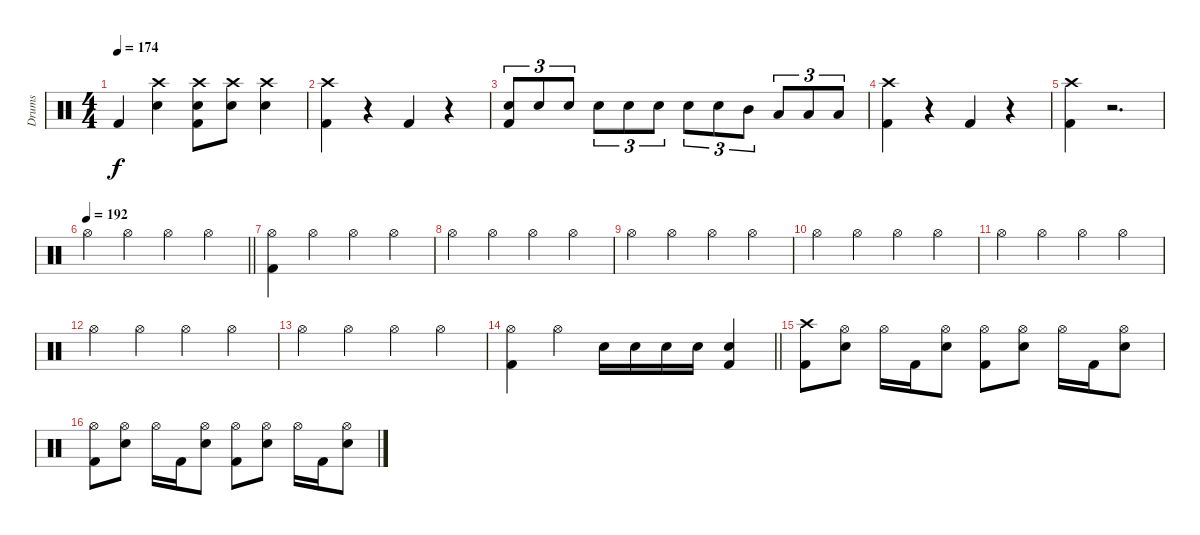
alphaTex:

\track ("Drums" "Drums") {instrument percussion}
\staff {score}
\articulation defaults
\ts (4 4)
\tempo 174
\clef neutral
\ks c "Kick (hit) 2".4{dy f}
("Crash high (hit)" "Snare (hit) 2").4 ("Crash high (hit)" "Snare (hit) 2" "Kick (hit) 2").8 ("Crash high (hit)" "Snare (hit) 2").8 ("Crash high (hit)" "Snare (hit) 2").4 |
("Crash high (hit)" "Kick (hit) 2").4 r.4 "Kick (hit) 2".4 r.4 |
("Snare (hit) 2" "Kick (hit) 2").8{tu (3 2)} "Snare (hit) 2".8{tu (3 2)} "Snare (hit) 2".8{tu (3 2)} "Snare (hit) 2".8{tu (3 2)} "Snare (hit) 2".8{tu (3 2)} "Snare (hit) 2".8{tu (3 2)} "Snare (hit) 2".8{tu (3 2)} "Snare (hit) 2".8{tu (3 2)} "Mid Tom (hit)".8{tu (3 2)} "Low Floor Tom (hit)".8{tu (3 2)} "Low Floor Tom (hit)".8{tu (3 2)} "Low Floor Tom (hit)".8{tu (3 2)} |
("Crash high (hit)" "Kick (hit) 2").4 r.4 "Kick (hit) 2".4 r.4 |
("Crash high (hit)" "Kick (hit) 2").4 r.2{d} |
\tempo 192
\barLineRight lightlight "Hi-Hat (open)".4 "Hi-Hat (open)".4 "Hi-Hat (open)".4 "Hi-Hat (open)".4
|
("Hi-Hat (open)" "Kick (hit) 2").4 "Hi-Hat (open)".4 "Hi-Hat (open)".4 "Hi-Hat (open)".4 |
"Hi-Hat (open)".4 "Hi-Hat (open)".4 "Hi-Hat (open)".4 "Hi-Hat (open)".4 |
"Hi-Hat (open)".4 "Hi-Hat (open)".4 "Hi-Hat (open)".4 "Hi-Hat (open)".4 |
"Hi-Hat (open)".4 "Hi-Hat (open)".4 "Hi-Hat (open)".4 "Hi-Hat (open)".4 |
"Hi-Hat (open)".4 "Hi-Hat (open)".4 "Hi-Hat (open)".4 "Hi-Hat (open)".4 |
"Hi-Hat (open)".4 "Hi-Hat (open)".4 "Hi-Hat (open)".4 "Hi-Hat (open)".4 |
"Hi-Hat (open)".4 "Hi-Hat (open)".4 "Hi-Hat (open)".4 "Hi-Hat (open)".4 |
\barLineRight lightlight
("Hi-Hat (open)" "Kick (hit) 2").4 "Hi-Hat (open)".4 "Snare (hit) 2".16 "Snare (hit) 2".16 "Snare (hit) 2".16 "Snare (hit) 2".16 ("Snare (hit) 2" "Kick (hit) 2").4 |
("Crash high (hit)" "Kick (hit) 2").8 ("Hi-Hat (open)" "Snare (hit) 2").8 "Hi-Hat (open)".16 "Kick (hit) 2".16 ("Hi-Hat (open)" "Snare (hit) 2").8 ("Hi-Hat (open)" "Kick (hit) 2").8 ("Hi-Hat (open)" "Snare (hit) 2").8 "Hi-Hat (open)".16 "Kick (hit) 2".16 ("Hi-Hat (open)" "Snare (hit) 2").8 |
("Hi-Hat (open)" "Kick (hit) 2").8 ("Hi-Hat (open)" "Snare (hit) 2").8 "Hi-Hat (open)".16 "Kick (hit) 2".16 ("Hi-Hat (open)" "Snare (hit) 2").8 ("Hi-Hat (open)" "Kick (hit) 2").8 ("Hi-Hat (open)" "Snare (hit) 2").8 "Hi-Hat (open)".16 "Kick (hit) 2".16 ("Hi-Hat (open)" "Snare (hit) 2").8
